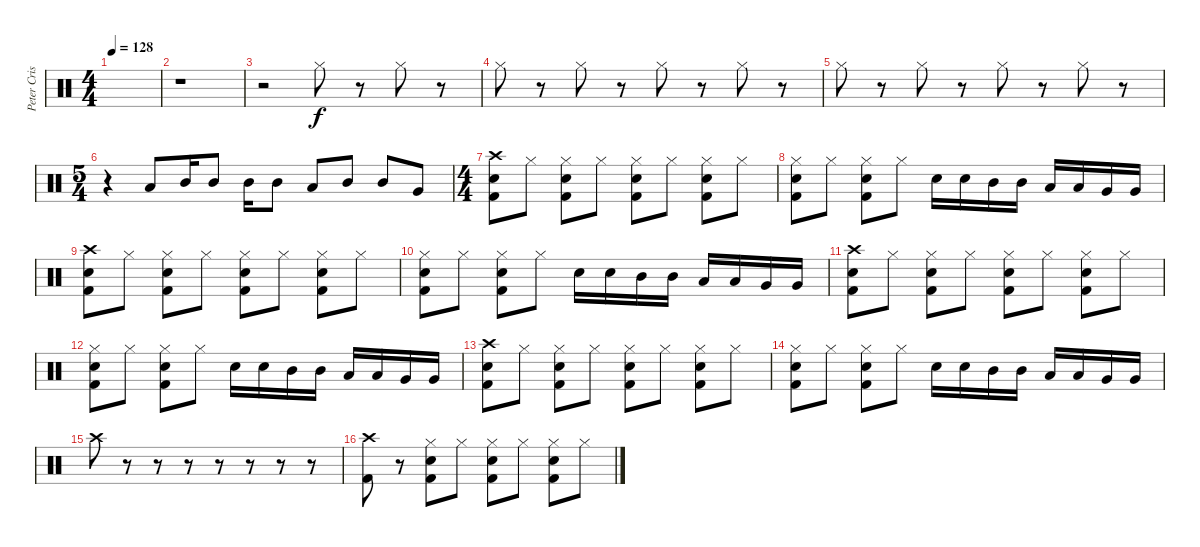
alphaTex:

\track ("Peter Criss" "Peter Cris") {instrument percussion}
\staff {score}
\articulation defaults
\ts (4 4)
\tempo 128
\clef neutral
\ks c
|
r.1 |
r.2 "Hi-Hat (closed)".8 r.8 "Hi-Hat (closed)".8 r.8 |
"Hi-Hat (closed)".8 r.8 "Hi-Hat (closed)".8 r.8 "Hi-Hat (closed)".8 r.8 "Hi-Hat (closed)".8 r.8 |
"Hi-Hat (closed)".8 r.8 "Hi-Hat (closed)".8 r.8 "Hi-Hat (closed)".8 r.8 "Hi-Hat (closed)".8 r.8 |
\ts (5 4)
r.4 "Low Tom (hit)".8 "Mid Tom (hit)".16 "Mid Tom (hit)".8 "Mid Tom (hit)".16 "Mid Tom (hit)".8 "Low Tom (hit)".8 "Mid Tom (hit)".8 "Mid Tom (hit)".8 "Very Low Tom (hit)".8 |
\ts (4 4)
("Crash high (hit)" "Electric Snare (hit)" "Kick (hit) 2").8 "Hi-Hat (closed)".8 ("Hi-Hat (closed)" "Electric Snare (hit)" "Kick (hit) 2").8 "Hi-Hat (closed)".8 ("Hi-Hat (closed)" "Electric Snare (hit)" "Kick (hit) 2").8 "Hi-Hat (closed)".8 ("Hi-Hat (closed)" "Electric Snare (hit)" "Kick (hit) 2").8 "Hi-Hat (closed)".8 |
("Hi-Hat (closed)" "Electric Snare (hit)" "Kick (hit) 2").8 "Hi-Hat (closed)".8 ("Hi-Hat (closed)" "Electric Snare (hit)" "Kick (hit) 2").8 "Hi-Hat (closed)".8 "Electric Snare (hit)".16 "Electric Snare (hit)".16 "Mid Tom (hit)".16 "Mid Tom (hit)".16 "Low Tom (hit)".16 "Low Tom (hit)".16 "Very Low Tom (hit)".16 "Very Low Tom (hit)".16 |
("Crash high (hit)" "Electric Snare (hit)" "Kick (hit) 2").8 "Hi-Hat (closed)".8 ("Hi-Hat (closed)" "Electric Snare (hit)" "Kick (hit) 2").8 "Hi-Hat (closed)".8 ("Hi-Hat (closed)" "Electric Snare (hit)" "Kick (hit) 2").8 "Hi-Hat (closed)".8 ("Hi-Hat (closed)" "Electric Snare (hit)" "Kick (hit) 2").8 "Hi-Hat (closed)".8 |
("Hi-Hat (closed)" "Electric Snare (hit)" "Kick (hit) 2").8 "Hi-Hat (closed)".8 ("Hi-Hat (closed)" "Electric Snare (hit)" "Kick (hit) 2").8 "Hi-Hat (closed)".8 "Electric Snare (hit)".16 "Electric Snare (hit)".16 "Mid Tom (hit)".16 "Mid Tom (hit)".16 "Low Tom (hit)".16 "Low Tom (hit)".16 "Very Low Tom (hit)".16 "Very Low Tom (hit)".16 |
("Crash high (hit)" "Electric Snare (hit)" "Kick (hit) 2").8 "Hi-Hat (closed)".8 ("Hi-Hat (closed)" "Electric Snare (hit)" "Kick (hit) 2").8 "Hi-Hat (closed)".8 ("Hi-Hat (closed)" "Electric Snare (hit)" "Kick (hit) 2").8 "Hi-Hat (closed)".8 ("Hi-Hat (closed)" "Electric Snare (hit)" "Kick (hit) 2").8 "Hi-Hat (closed)".8 |
("Hi-Hat (closed)" "Electric Snare (hit)" "Kick (hit) 2").8 "Hi-Hat (closed)".8 ("Hi-Hat (closed)" "Electric Snare (hit)" "Kick (hit) 2").8 "Hi-Hat (closed)".8 "Electric Snare (hit)".16 "Electric Snare (hit)".16 "Mid Tom (hit)".16 "Mid Tom (hit)".16 "Low Tom (hit)".16 "Low Tom (hit)".16 "Very Low Tom (hit)".16 "Very Low Tom (hit)".16 |
("Crash high (hit)" "Electric Snare (hit)" "Kick (hit) 2").8 "Hi-Hat (closed)".8 ("Hi-Hat (closed)" "Electric Snare (hit)" "Kick (hit) 2").8 "Hi-Hat (closed)".8 ("Hi-Hat (closed)" "Electric Snare (hit)" "Kick (hit) 2").8 "Hi-Hat (closed)".8 ("Hi-Hat (closed)" "Electric Snare (hit)" "Kick (hit) 2").8 "Hi-Hat (closed)".8 |
("Hi-Hat (closed)" "Electric Snare (hit)" "Kick (hit) 2").8 "Hi-Hat (closed)".8 ("Hi-Hat (closed)" "Electric Snare (hit)" "Kick (hit) 2").8 "Hi-Hat (closed)".8 "Electric Snare (hit)".16 "Electric Snare (hit)".16 "Mid Tom (hit)".16 "Mid Tom (hit)".16 "Low Tom (hit)".16 "Low Tom (hit)".16 "Very Low Tom (hit)".16 "Very Low Tom (hit)".16 |
"Crash high (hit)".8 r.8 r.8 r.8 r.8 r.8 r.8 r.8 |
("Crash high (hit)" "Kick (hit) 2").8 r.8 ("Hi-Hat (closed)" "Electric Snare (hit)" "Kick (hit) 2").8 "Hi-Hat (closed)".8 ("Hi-Hat (closed)" "Electric Snare (hit)" "Kick (hit) 2").8 "Hi-Hat (closed)".8 ("Hi-Hat (closed)" "Electric Snare (hit)" "Kick (hit) 2").8 "Hi-Hat (closed)".8
